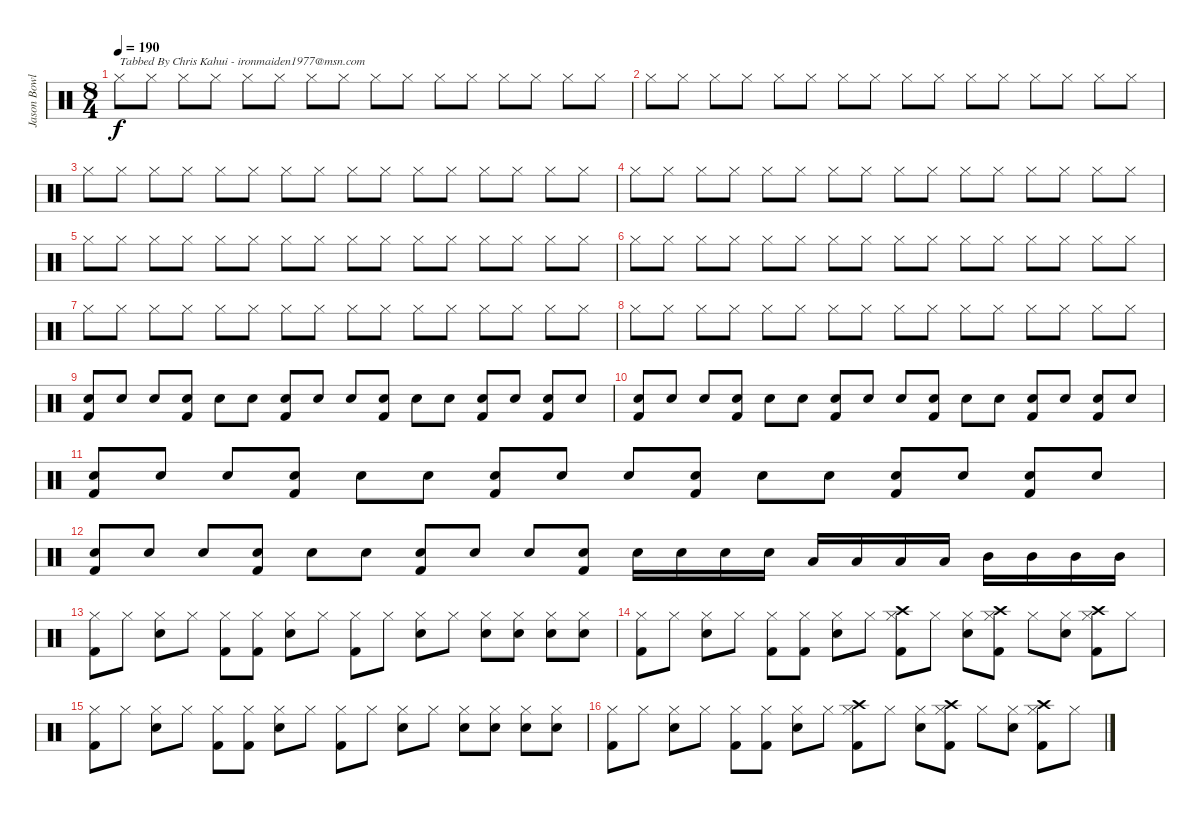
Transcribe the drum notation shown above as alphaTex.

\track ("Jason Bowld" "Jason Bowl") {instrument percussion}
\staff {score}
\articulation defaults
\ts (8 4)
\tempo 190
\clef neutral
\ks c "Hi-Hat (closed)".8{txt "Tabbed By Chris Kahui - ironmaiden1977@msn.com" dy f} "Hi-Hat (closed)".8 "Hi-Hat (closed)".8 "Hi-Hat (closed)".8 "Hi-Hat (closed)".8 "Hi-Hat (closed)".8 "Hi-Hat (closed)".8 "Hi-Hat (closed)".8 "Hi-Hat (closed)".8 "Hi-Hat (closed)".8 "Hi-Hat (closed)".8 "Hi-Hat (closed)".8 "Hi-Hat (closed)".8 "Hi-Hat (closed)".8 "Hi-Hat (closed)".8 "Hi-Hat (closed)".8
|
"Hi-Hat (closed)".8 "Hi-Hat (closed)".8 "Hi-Hat (closed)".8 "Hi-Hat (closed)".8 "Hi-Hat (closed)".8 "Hi-Hat (closed)".8 "Hi-Hat (closed)".8 "Hi-Hat (closed)".8 "Hi-Hat (closed)".8 "Hi-Hat (closed)".8 "Hi-Hat (closed)".8 "Hi-Hat (closed)".8 "Hi-Hat (closed)".8 "Hi-Hat (closed)".8 "Hi-Hat (closed)".8 "Hi-Hat (closed)".8 |
"Hi-Hat (closed)".8 "Hi-Hat (closed)".8 "Hi-Hat (closed)".8 "Hi-Hat (closed)".8 "Hi-Hat (closed)".8 "Hi-Hat (closed)".8 "Hi-Hat (closed)".8 "Hi-Hat (closed)".8 "Hi-Hat (closed)".8 "Hi-Hat (closed)".8 "Hi-Hat (closed)".8 "Hi-Hat (closed)".8 "Hi-Hat (closed)".8 "Hi-Hat (closed)".8 "Hi-Hat (closed)".8 "Hi-Hat (closed)".8 |
"Hi-Hat (closed)".8 "Hi-Hat (closed)".8 "Hi-Hat (closed)".8 "Hi-Hat (closed)".8 "Hi-Hat (closed)".8 "Hi-Hat (closed)".8 "Hi-Hat (closed)".8 "Hi-Hat (closed)".8 "Hi-Hat (closed)".8 "Hi-Hat (closed)".8 "Hi-Hat (closed)".8 "Hi-Hat (closed)".8 "Hi-Hat (closed)".8 "Hi-Hat (closed)".8 "Hi-Hat (closed)".8 "Hi-Hat (closed)".8 |
"Hi-Hat (closed)".8 "Hi-Hat (closed)".8 "Hi-Hat (closed)".8 "Hi-Hat (closed)".8 "Hi-Hat (closed)".8 "Hi-Hat (closed)".8 "Hi-Hat (closed)".8 "Hi-Hat (closed)".8 "Hi-Hat (closed)".8 "Hi-Hat (closed)".8 "Hi-Hat (closed)".8 "Hi-Hat (closed)".8 "Hi-Hat (closed)".8 "Hi-Hat (closed)".8 "Hi-Hat (closed)".8 "Hi-Hat (closed)".8 |
"Hi-Hat (closed)".8 "Hi-Hat (closed)".8 "Hi-Hat (closed)".8 "Hi-Hat (closed)".8 "Hi-Hat (closed)".8 "Hi-Hat (closed)".8 "Hi-Hat (closed)".8 "Hi-Hat (closed)".8 "Hi-Hat (closed)".8 "Hi-Hat (closed)".8 "Hi-Hat (closed)".8 "Hi-Hat (closed)".8 "Hi-Hat (closed)".8 "Hi-Hat (closed)".8 "Hi-Hat (closed)".8 "Hi-Hat (closed)".8 |
"Hi-Hat (closed)".8 "Hi-Hat (closed)".8 "Hi-Hat (closed)".8 "Hi-Hat (closed)".8 "Hi-Hat (closed)".8 "Hi-Hat (closed)".8 "Hi-Hat (closed)".8 "Hi-Hat (closed)".8 "Hi-Hat (closed)".8 "Hi-Hat (closed)".8 "Hi-Hat (closed)".8 "Hi-Hat (closed)".8 "Hi-Hat (closed)".8 "Hi-Hat (closed)".8 "Hi-Hat (closed)".8 "Hi-Hat (closed)".8 |
"Hi-Hat (closed)".8 "Hi-Hat (closed)".8 "Hi-Hat (closed)".8 "Hi-Hat (closed)".8 "Hi-Hat (closed)".8 "Hi-Hat (closed)".8 "Hi-Hat (closed)".8 "Hi-Hat (closed)".8 "Hi-Hat (closed)".8 "Hi-Hat (closed)".8 "Hi-Hat (closed)".8 "Hi-Hat (closed)".8 "Hi-Hat (closed)".8 "Hi-Hat (closed)".8 "Hi-Hat (closed)".8 "Hi-Hat (closed)".8 |
("Snare (hit) 2" "Kick (hit) 2").8 "Snare (hit) 2".8 "Snare (hit) 2".8 ("Snare (hit) 2" "Kick (hit) 2").8 "Snare (hit) 2".8 "Snare (hit) 2".8 ("Snare (hit) 2" "Kick (hit) 2").8 "Snare (hit) 2".8 "Snare (hit) 2".8 ("Snare (hit) 2" "Kick (hit) 2").8 "Snare (hit) 2".8 "Snare (hit) 2".8 ("Snare (hit) 2" "Kick (hit) 2").8 "Snare (hit) 2".8 ("Snare (hit) 2" "Kick (hit) 2").8 "Snare (hit) 2".8 |
("Snare (hit) 2" "Kick (hit) 2").8 "Snare (hit) 2".8 "Snare (hit) 2".8 ("Snare (hit) 2" "Kick (hit) 2").8 "Snare (hit) 2".8 "Snare (hit) 2".8 ("Snare (hit) 2" "Kick (hit) 2").8 "Snare (hit) 2".8 "Snare (hit) 2".8 ("Snare (hit) 2" "Kick (hit) 2").8 "Snare (hit) 2".8 "Snare (hit) 2".8 ("Snare (hit) 2" "Kick (hit) 2").8 "Snare (hit) 2".8 ("Snare (hit) 2" "Kick (hit) 2").8 "Snare (hit) 2".8 |
("Snare (hit) 2" "Kick (hit) 2").8 "Snare (hit) 2".8 "Snare (hit) 2".8 ("Snare (hit) 2" "Kick (hit) 2").8 "Snare (hit) 2".8 "Snare (hit) 2".8 ("Snare (hit) 2" "Kick (hit) 2").8 "Snare (hit) 2".8 "Snare (hit) 2".8 ("Snare (hit) 2" "Kick (hit) 2").8 "Snare (hit) 2".8 "Snare (hit) 2".8 ("Snare (hit) 2" "Kick (hit) 2").8 "Snare (hit) 2".8 ("Snare (hit) 2" "Kick (hit) 2").8 "Snare (hit) 2".8 |
("Snare (hit) 2" "Kick (hit) 2").8 "Snare (hit) 2".8 "Snare (hit) 2".8 ("Snare (hit) 2" "Kick (hit) 2").8 "Snare (hit) 2".8 "Snare (hit) 2".8 ("Snare (hit) 2" "Kick (hit) 2").8 "Snare (hit) 2".8 "Snare (hit) 2".8 ("Snare (hit) 2" "Kick (hit) 2").8 "Snare (hit) 2".16 "Snare (hit) 2".16 "Snare (hit) 2".16 "Snare (hit) 2".16 "Low Tom (hit)".16 "Low Tom (hit)".16 "Low Tom (hit)".16 "Low Tom (hit)".16 "Mid Tom (hit)".16 "Mid Tom (hit)".16 "Mid Tom (hit)".16 "Mid Tom (hit)".16 |
("Hi-Hat (closed)" "Kick (hit) 2").8 "Hi-Hat (closed)".8 ("Hi-Hat (closed)" "Snare (hit) 2").8 "Hi-Hat (closed)".8 ("Hi-Hat (closed)" "Kick (hit) 2").8 ("Hi-Hat (closed)" "Kick (hit) 2").8 ("Hi-Hat (closed)" "Snare (hit) 2").8 "Hi-Hat (closed)".8 ("Hi-Hat (closed)" "Kick (hit) 2").8 "Hi-Hat (closed)".8 ("Hi-Hat (closed)" "Snare (hit) 2").8 "Hi-Hat (closed)".8 ("Hi-Hat (closed)" "Snare (hit) 2").8 ("Hi-Hat (closed)" "Snare (hit) 2").8 ("Hi-Hat (closed)" "Snare (hit) 2").8 ("Hi-Hat (closed)" "Snare (hit) 2").8 |
("Hi-Hat (closed)" "Kick (hit) 2").8 "Hi-Hat (closed)".8 ("Hi-Hat (closed)" "Snare (hit) 2").8 "Hi-Hat (closed)".8 ("Hi-Hat (closed)" "Kick (hit) 2").8 ("Hi-Hat (closed)" "Kick (hit) 2").8 ("Hi-Hat (closed)" "Snare (hit) 2").8 "Hi-Hat (closed)".8 ("Hi-Hat (closed)" "Kick (hit) 2" "Crash high (hit)").8 "Hi-Hat (closed)".8 ("Hi-Hat (closed)" "Snare (hit) 2").8 ("Hi-Hat (closed)" "Kick (hit) 2" "Crash high (hit)").8 "Hi-Hat (closed)".8 ("Hi-Hat (closed)" "Snare (hit) 2").8 ("Hi-Hat (closed)" "Kick (hit) 2" "Crash high (hit)").8 "Hi-Hat (closed)".8 |
("Hi-Hat (closed)" "Kick (hit) 2").8 "Hi-Hat (closed)".8 ("Hi-Hat (closed)" "Snare (hit) 2").8 "Hi-Hat (closed)".8 ("Hi-Hat (closed)" "Kick (hit) 2").8 ("Hi-Hat (closed)" "Kick (hit) 2").8 ("Hi-Hat (closed)" "Snare (hit) 2").8 "Hi-Hat (closed)".8 ("Hi-Hat (closed)" "Kick (hit) 2").8 "Hi-Hat (closed)".8 ("Hi-Hat (closed)" "Snare (hit) 2").8 "Hi-Hat (closed)".8 ("Hi-Hat (closed)" "Snare (hit) 2").8 ("Hi-Hat (closed)" "Snare (hit) 2").8 ("Hi-Hat (closed)" "Snare (hit) 2").8 ("Hi-Hat (closed)" "Snare (hit) 2").8 |
("Hi-Hat (closed)" "Kick (hit) 2").8 "Hi-Hat (closed)".8 ("Hi-Hat (closed)" "Snare (hit) 2").8 "Hi-Hat (closed)".8 ("Hi-Hat (closed)" "Kick (hit) 2").8 ("Hi-Hat (closed)" "Kick (hit) 2").8 ("Hi-Hat (closed)" "Snare (hit) 2").8 "Hi-Hat (closed)".8 ("Hi-Hat (closed)" "Kick (hit) 2" "Crash high (hit)").8 "Hi-Hat (closed)".8 ("Hi-Hat (closed)" "Snare (hit) 2").8 ("Hi-Hat (closed)" "Kick (hit) 2" "Crash high (hit)").8 "Hi-Hat (closed)".8 ("Hi-Hat (closed)" "Snare (hit) 2").8 ("Hi-Hat (closed)" "Kick (hit) 2" "Crash high (hit)").8 "Hi-Hat (closed)".8
